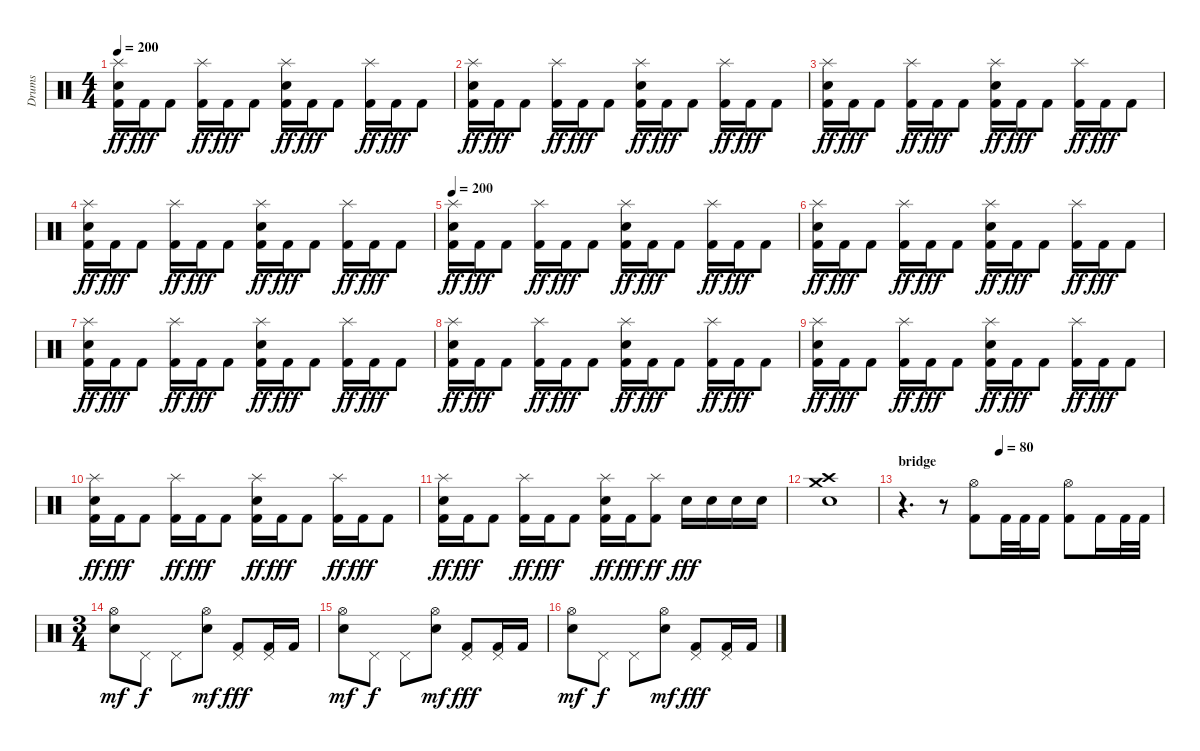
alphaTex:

\track ("Drums" "Drums") {instrument percussion}
\staff {score}
\articulation defaults
\ts (4 4)
\tempo 200
\clef neutral
\ks c
("Kick (hit) 2" "Electric Snare (hit)" "Splash (hit)").16{dy ff} "Kick (hit) 2".16{dy fff} "Kick (hit) 2".8 ("Kick (hit) 2" "Splash (hit)").16{dy ff} "Kick (hit) 2".16{dy fff} "Kick (hit) 2".8 ("Kick (hit) 2" "Electric Snare (hit)" "Splash (hit)").16{dy ff} "Kick (hit) 2".16{dy fff} "Kick (hit) 2".8 ("Kick (hit) 2" "Splash (hit)").16{dy ff} "Kick (hit) 2".16{dy fff} "Kick (hit) 2".8 |
("Kick (hit) 2" "Electric Snare (hit)" "Splash (hit)").16{dy ff} "Kick (hit) 2".16{dy fff} "Kick (hit) 2".8 ("Kick (hit) 2" "Splash (hit)").16{dy ff} "Kick (hit) 2".16{dy fff} "Kick (hit) 2".8 ("Kick (hit) 2" "Electric Snare (hit)" "Splash (hit)").16{dy ff} "Kick (hit) 2".16{dy fff} "Kick (hit) 2".8 ("Kick (hit) 2" "Splash (hit)").16{dy ff} "Kick (hit) 2".16{dy fff} "Kick (hit) 2".8 |
("Kick (hit) 2" "Electric Snare (hit)" "Splash (hit)").16{dy ff} "Kick (hit) 2".16{dy fff} "Kick (hit) 2".8 ("Kick (hit) 2" "Splash (hit)").16{dy ff} "Kick (hit) 2".16{dy fff} "Kick (hit) 2".8 ("Kick (hit) 2" "Electric Snare (hit)" "Splash (hit)").16{dy ff} "Kick (hit) 2".16{dy fff} "Kick (hit) 2".8 ("Kick (hit) 2" "Splash (hit)").16{dy ff} "Kick (hit) 2".16{dy fff} "Kick (hit) 2".8 |
("Kick (hit) 2" "Electric Snare (hit)" "Splash (hit)").16{dy ff} "Kick (hit) 2".16{dy fff} "Kick (hit) 2".8 ("Kick (hit) 2" "Splash (hit)").16{dy ff} "Kick (hit) 2".16{dy fff} "Kick (hit) 2".8 ("Kick (hit) 2" "Electric Snare (hit)" "Splash (hit)").16{dy ff} "Kick (hit) 2".16{dy fff} "Kick (hit) 2".8 ("Kick (hit) 2" "Splash (hit)").16{dy ff} "Kick (hit) 2".16{dy fff} "Kick (hit) 2".8 |
\tempo 200
("Kick (hit) 2" "Electric Snare (hit)" "Splash (hit)").16{dy ff} "Kick (hit) 2".16{dy fff} "Kick (hit) 2".8 ("Kick (hit) 2" "Splash (hit)").16{dy ff} "Kick (hit) 2".16{dy fff} "Kick (hit) 2".8 ("Kick (hit) 2" "Electric Snare (hit)" "Splash (hit)").16{dy ff} "Kick (hit) 2".16{dy fff} "Kick (hit) 2".8 ("Kick (hit) 2" "Splash (hit)").16{dy ff} "Kick (hit) 2".16{dy fff} "Kick (hit) 2".8 |
("Kick (hit) 2" "Electric Snare (hit)" "Splash (hit)").16{dy ff} "Kick (hit) 2".16{dy fff} "Kick (hit) 2".8 ("Kick (hit) 2" "Splash (hit)").16{dy ff} "Kick (hit) 2".16{dy fff} "Kick (hit) 2".8 ("Kick (hit) 2" "Electric Snare (hit)" "Splash (hit)").16{dy ff} "Kick (hit) 2".16{dy fff} "Kick (hit) 2".8 ("Kick (hit) 2" "Splash (hit)").16{dy ff} "Kick (hit) 2".16{dy fff} "Kick (hit) 2".8 |
("Kick (hit) 2" "Electric Snare (hit)" "Splash (hit)").16{dy ff} "Kick (hit) 2".16{dy fff} "Kick (hit) 2".8 ("Kick (hit) 2" "Splash (hit)").16{dy ff} "Kick (hit) 2".16{dy fff} "Kick (hit) 2".8 ("Kick (hit) 2" "Electric Snare (hit)" "Splash (hit)").16{dy ff} "Kick (hit) 2".16{dy fff} "Kick (hit) 2".8 ("Kick (hit) 2" "Splash (hit)").16{dy ff} "Kick (hit) 2".16{dy fff} "Kick (hit) 2".8 |
("Kick (hit) 2" "Electric Snare (hit)" "Splash (hit)").16{dy ff} "Kick (hit) 2".16{dy fff} "Kick (hit) 2".8 ("Kick (hit) 2" "Splash (hit)").16{dy ff} "Kick (hit) 2".16{dy fff} "Kick (hit) 2".8 ("Kick (hit) 2" "Electric Snare (hit)" "Splash (hit)").16{dy ff} "Kick (hit) 2".16{dy fff} "Kick (hit) 2".8 ("Kick (hit) 2" "Splash (hit)").16{dy ff} "Kick (hit) 2".16{dy fff} "Kick (hit) 2".8 |
("Kick (hit) 2" "Electric Snare (hit)" "Splash (hit)").16{dy ff} "Kick (hit) 2".16{dy fff} "Kick (hit) 2".8 ("Kick (hit) 2" "Splash (hit)").16{dy ff} "Kick (hit) 2".16{dy fff} "Kick (hit) 2".8 ("Kick (hit) 2" "Electric Snare (hit)" "Splash (hit)").16{dy ff} "Kick (hit) 2".16{dy fff} "Kick (hit) 2".8 ("Kick (hit) 2" "Splash (hit)").16{dy ff} "Kick (hit) 2".16{dy fff} "Kick (hit) 2".8 |
("Kick (hit) 2" "Electric Snare (hit)" "Splash (hit)").16{dy ff} "Kick (hit) 2".16{dy fff} "Kick (hit) 2".8 ("Kick (hit) 2" "Splash (hit)").16{dy ff} "Kick (hit) 2".16{dy fff} "Kick (hit) 2".8 ("Kick (hit) 2" "Electric Snare (hit)" "Splash (hit)").16{dy ff} "Kick (hit) 2".16{dy fff} "Kick (hit) 2".8 ("Kick (hit) 2" "Splash (hit)").16{dy ff} "Kick (hit) 2".16{dy fff} "Kick (hit) 2".8 |
("Kick (hit) 2" "Electric Snare (hit)" "Splash (hit)").16{dy ff} "Kick (hit) 2".16{dy fff} "Kick (hit) 2".8 ("Kick (hit) 2" "Splash (hit)").16{dy ff} "Kick (hit) 2".16{dy fff} "Kick (hit) 2".8 ("Kick (hit) 2" "Electric Snare (hit)" "Splash (hit)").16{dy ff} "Kick (hit) 2".16{dy fff} ("Kick (hit) 2" "Splash (hit)").8{dy ff} "Electric Snare (hit)".16{dy fff} "Electric Snare (hit)".16 "Electric Snare (hit)".16 "Electric Snare (hit)".16 |
("Crash high (hit)" "Crash medium (hit)" "Electric Snare (hit)").1 |
\section ("" "bridge")
\tempo (80 0.375)
r.4{d} r.8 ("Hi-Hat (open)" "Kick (hit) 2").8 "Kick (hit) 2".32 "Kick (hit) 2".32 "Kick (hit) 2".16 ("Hi-Hat (open)" "Kick (hit) 2").8 "Kick (hit) 2".16 "Kick (hit) 2".32 "Kick (hit) 2".32 |
\ts (3 4)
("Hi-Hat (open)" "Snare (hit) 2").8{dy mf} "Pedal Hi-Hat (hit)".8{dy f} "Pedal Hi-Hat (hit)".8 ("Hi-Hat (open)" "Snare (hit) 2").8{dy mf} ("Pedal Hi-Hat (hit)" "Kick (hit) 2").8{dy fff} ("Pedal Hi-Hat (hit)" "Kick (hit) 2").16 "Kick (hit) 2".16 |
("Hi-Hat (open)" "Snare (hit) 2").8{dy mf} "Pedal Hi-Hat (hit)".8{dy f} "Pedal Hi-Hat (hit)".8 ("Hi-Hat (open)" "Snare (hit) 2").8{dy mf} ("Pedal Hi-Hat (hit)" "Kick (hit) 2").8{dy fff} ("Pedal Hi-Hat (hit)" "Kick (hit) 2").16 "Kick (hit) 2".16 |
("Hi-Hat (open)" "Snare (hit) 2").8{dy mf} "Pedal Hi-Hat (hit)".8{dy f} "Pedal Hi-Hat (hit)".8 ("Hi-Hat (open)" "Snare (hit) 2").8{dy mf} ("Pedal Hi-Hat (hit)" "Kick (hit) 2").8{dy fff} ("Pedal Hi-Hat (hit)" "Kick (hit) 2").16 "Kick (hit) 2".16
